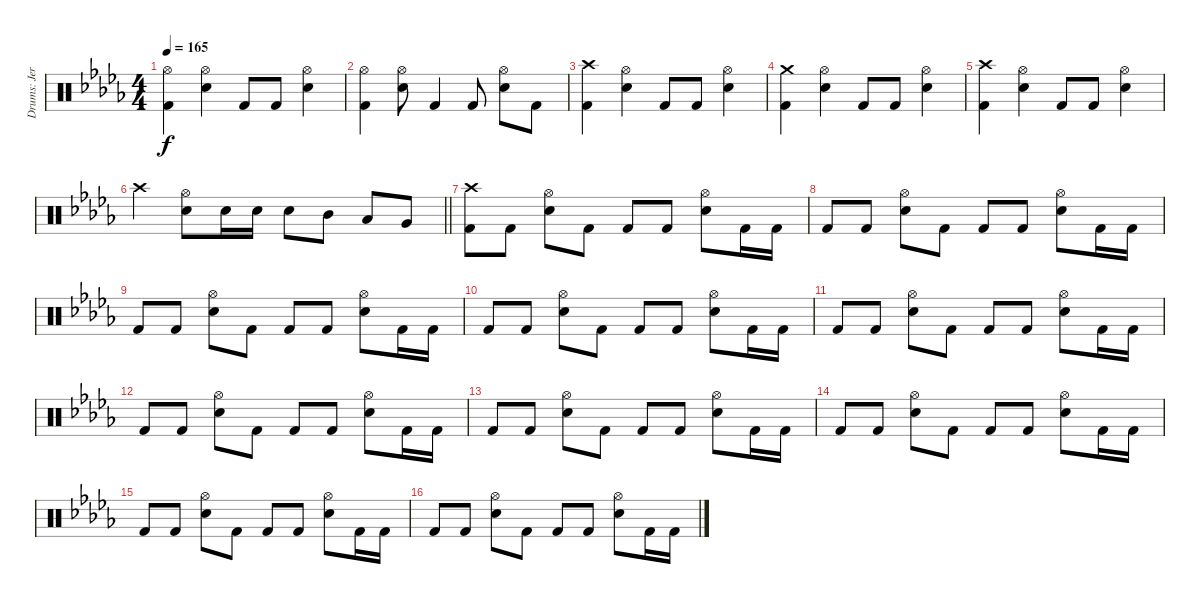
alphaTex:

\track ("Drums: Jere Luokkamäki" "Drums: Jer") {instrument percussion}
\staff {score}
\articulation defaults
\ts (4 4)
\tempo 165
\clef neutral
\ks bbminor
("Hi-Hat (open)" "Kick (hit) 2").4{dy f} ("Hi-Hat (open)" "Electric Snare (hit)").4 "Kick (hit) 2".8 "Kick (hit) 2".8 ("Hi-Hat (open)" "Electric Snare (hit)").4 |
("Hi-Hat (open)" "Kick (hit) 2").4 ("Hi-Hat (open)" "Electric Snare (hit)").8 "Kick (hit) 2".4 "Kick (hit) 2".8 ("Hi-Hat (open)" "Electric Snare (hit)").8 "Kick (hit) 2".8 |
("Crash high (hit)" "Kick (hit) 2").4 ("Hi-Hat (open)" "Electric Snare (hit)").4 "Kick (hit) 2".8 "Kick (hit) 2".8 ("Hi-Hat (open)" "Electric Snare (hit)").4 |
("Crash medium (hit)" "Kick (hit) 2").4 ("Hi-Hat (open)" "Electric Snare (hit)").4 "Kick (hit) 2".8 "Kick (hit) 2".8 ("Hi-Hat (open)" "Electric Snare (hit)").4 |
("Crash high (hit)" "Kick (hit) 2").4 ("Hi-Hat (open)" "Electric Snare (hit)").4 "Kick (hit) 2".8 "Kick (hit) 2".8 ("Hi-Hat (open)" "Electric Snare (hit)").4 |
\barLineRight lightlight "Crash high (hit)".4
("Hi-Hat (open)" "Electric Snare (hit)").8 "Electric Snare (hit)".16 "Electric Snare (hit)".16 "Electric Snare (hit)".8 "Mid Tom (hit)".8 "Low Tom (hit)".8 "Very Low Tom (hit)".8 |
\section ("" "")
("Crash high (hit)" "Kick (hit) 2").8 "Kick (hit) 2".8 ("Hi-Hat (open)" "Electric Snare (hit)").8 "Kick (hit) 2".8 "Kick (hit) 2".8 "Kick (hit) 2".8 ("Hi-Hat (open)" "Electric Snare (hit)").8 "Kick (hit) 2".16 "Kick (hit) 2".16 |
"Kick (hit) 2".8 "Kick (hit) 2".8 ("Hi-Hat (open)" "Electric Snare (hit)").8 "Kick (hit) 2".8 "Kick (hit) 2".8 "Kick (hit) 2".8 ("Hi-Hat (open)" "Electric Snare (hit)").8 "Kick (hit) 2".16 "Kick (hit) 2".16 |
"Kick (hit) 2".8 "Kick (hit) 2".8 ("Hi-Hat (open)" "Electric Snare (hit)").8 "Kick (hit) 2".8 "Kick (hit) 2".8 "Kick (hit) 2".8 ("Hi-Hat (open)" "Electric Snare (hit)").8 "Kick (hit) 2".16 "Kick (hit) 2".16 |
"Kick (hit) 2".8 "Kick (hit) 2".8 ("Hi-Hat (open)" "Electric Snare (hit)").8 "Kick (hit) 2".8 "Kick (hit) 2".8 "Kick (hit) 2".8 ("Hi-Hat (open)" "Electric Snare (hit)").8 "Kick (hit) 2".16 "Kick (hit) 2".16 |
"Kick (hit) 2".8 "Kick (hit) 2".8 ("Hi-Hat (open)" "Electric Snare (hit)").8 "Kick (hit) 2".8 "Kick (hit) 2".8 "Kick (hit) 2".8 ("Hi-Hat (open)" "Electric Snare (hit)").8 "Kick (hit) 2".16 "Kick (hit) 2".16 |
"Kick (hit) 2".8 "Kick (hit) 2".8 ("Hi-Hat (open)" "Electric Snare (hit)").8 "Kick (hit) 2".8 "Kick (hit) 2".8 "Kick (hit) 2".8 ("Hi-Hat (open)" "Electric Snare (hit)").8 "Kick (hit) 2".16 "Kick (hit) 2".16 |
"Kick (hit) 2".8 "Kick (hit) 2".8 ("Hi-Hat (open)" "Electric Snare (hit)").8 "Kick (hit) 2".8 "Kick (hit) 2".8 "Kick (hit) 2".8 ("Hi-Hat (open)" "Electric Snare (hit)").8 "Kick (hit) 2".16 "Kick (hit) 2".16 |
"Kick (hit) 2".8 "Kick (hit) 2".8 ("Hi-Hat (open)" "Electric Snare (hit)").8 "Kick (hit) 2".8 "Kick (hit) 2".8 "Kick (hit) 2".8 ("Hi-Hat (open)" "Electric Snare (hit)").8 "Kick (hit) 2".16 "Kick (hit) 2".16 |
"Kick (hit) 2".8 "Kick (hit) 2".8 ("Hi-Hat (open)" "Electric Snare (hit)").8 "Kick (hit) 2".8 "Kick (hit) 2".8 "Kick (hit) 2".8 ("Hi-Hat (open)" "Electric Snare (hit)").8 "Kick (hit) 2".16 "Kick (hit) 2".16 |
"Kick (hit) 2".8 "Kick (hit) 2".8 ("Hi-Hat (open)" "Electric Snare (hit)").8 "Kick (hit) 2".8 "Kick (hit) 2".8 "Kick (hit) 2".8 ("Hi-Hat (open)" "Electric Snare (hit)").8 "Kick (hit) 2".16 "Kick (hit) 2".16
